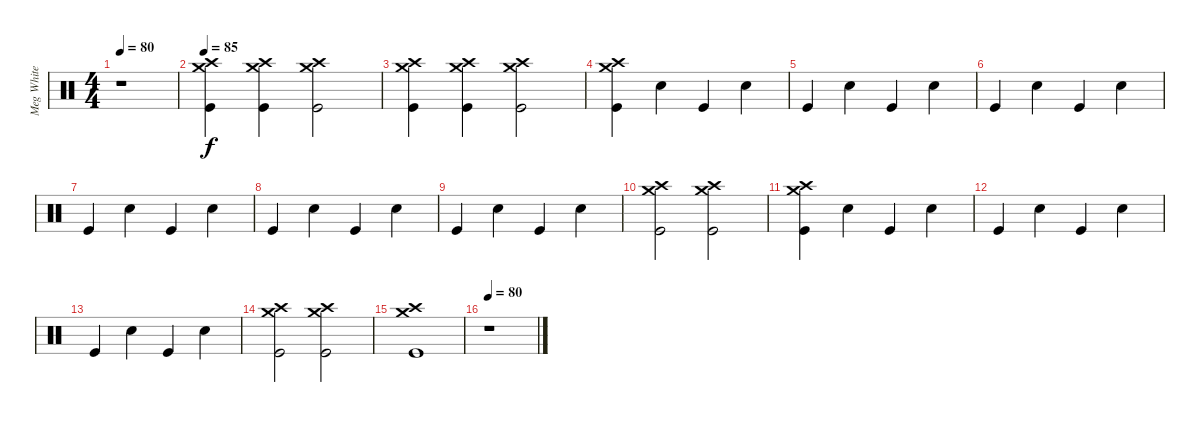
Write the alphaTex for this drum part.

\track ("Meg White" "Meg White") {instrument percussion}
\staff {score}
\articulation defaults
\ts (4 4)
\tempo 80
\clef neutral
\ks c
r.1{dy f} |
\tempo 85
("Kick (hit)" "Crash medium (hit)" "Crash high (hit)").4 ("Kick (hit)" "Crash medium (hit)" "Crash high (hit)").4 ("Kick (hit)" "Crash medium (hit)" "Crash high (hit)").2 |
("Kick (hit)" "Crash medium (hit)" "Crash high (hit)").4 ("Kick (hit)" "Crash medium (hit)" "Crash high (hit)").4 ("Kick (hit)" "Crash medium (hit)" "Crash high (hit)").2 |
("Kick (hit)" "Crash medium (hit)" "Crash high (hit)").4 "Snare (hit) 2".4 "Kick (hit)".4 "Snare (hit) 2".4 |
"Kick (hit)".4 "Snare (hit) 2".4 "Kick (hit)".4 "Snare (hit) 2".4 |
"Kick (hit)".4 "Snare (hit) 2".4 "Kick (hit)".4 "Snare (hit) 2".4 |
"Kick (hit)".4 "Snare (hit) 2".4 "Kick (hit)".4 "Snare (hit) 2".4 |
"Kick (hit)".4 "Snare (hit) 2".4 "Kick (hit)".4 "Snare (hit) 2".4 |
"Kick (hit)".4 "Snare (hit) 2".4 "Kick (hit)".4 "Snare (hit) 2".4 |
("Kick (hit)" "Crash medium (hit)" "Crash high (hit)").2 ("Kick (hit)" "Crash medium (hit)" "Crash high (hit)").2 |
("Kick (hit)" "Crash medium (hit)" "Crash high (hit)").4 "Snare (hit) 2".4 "Kick (hit)".4 "Snare (hit) 2".4 |
"Kick (hit)".4 "Snare (hit) 2".4 "Kick (hit)".4 "Snare (hit) 2".4 |
"Kick (hit)".4 "Snare (hit) 2".4 "Kick (hit)".4 "Snare (hit) 2".4 |
("Kick (hit)" "Crash medium (hit)" "Crash high (hit)").2 ("Kick (hit)" "Crash medium (hit)" "Crash high (hit)").2 |
("Kick (hit)" "Crash medium (hit)" "Crash high (hit)").1 |
\tempo 80
r.1
